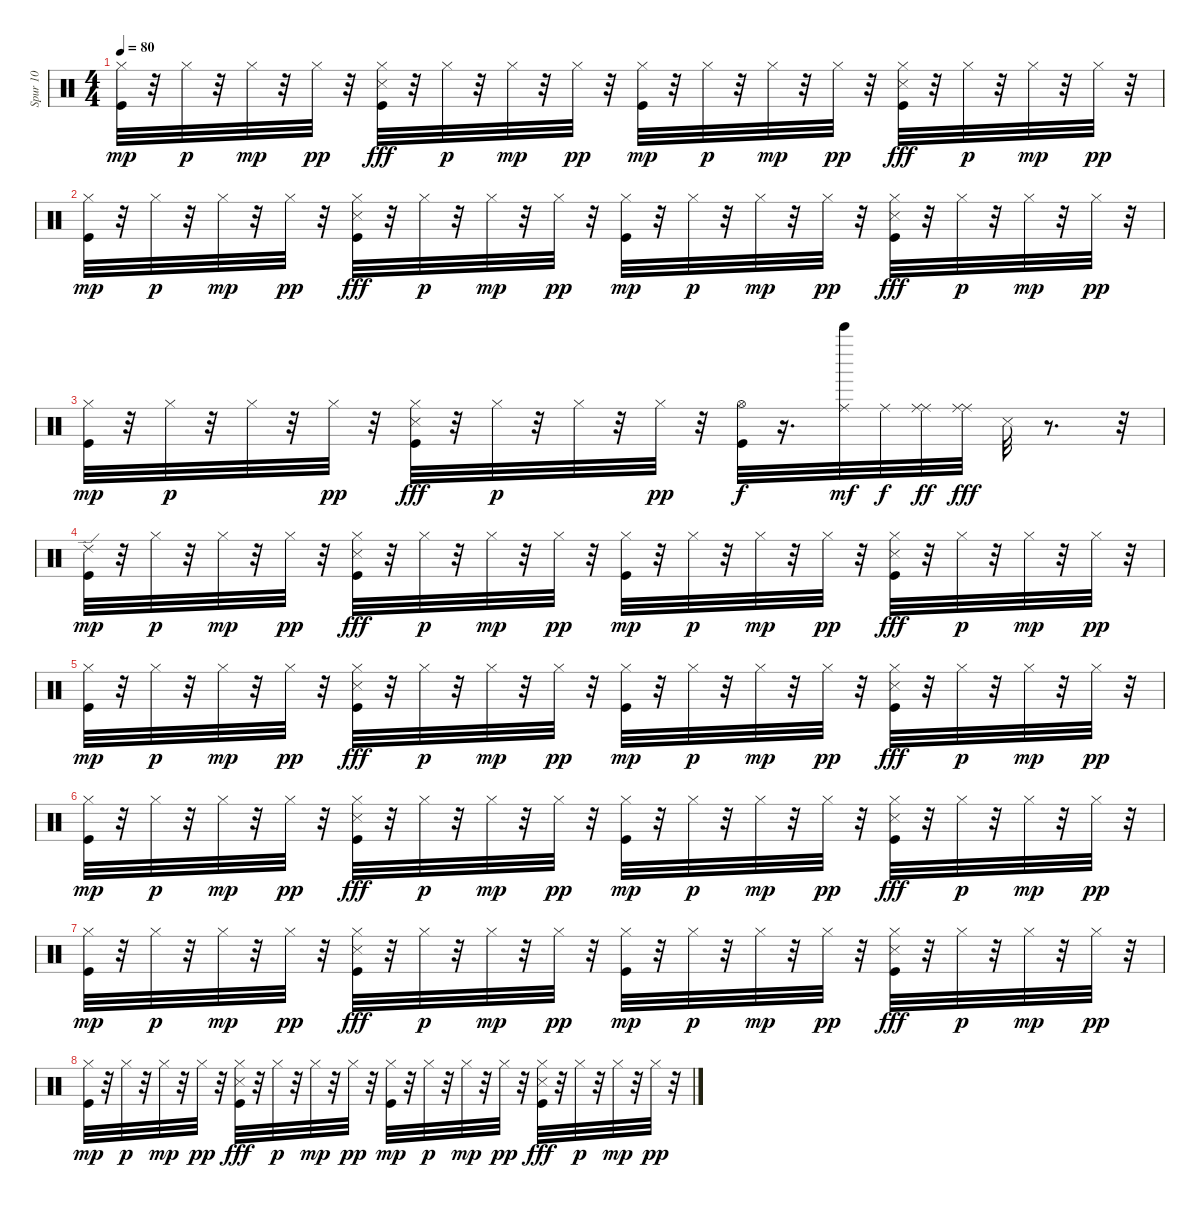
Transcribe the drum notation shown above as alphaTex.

\track ("Spur 10" "Spur 10") {instrument percussion}
\staff {score}
\articulation defaults
\ts (4 4)
\tempo 80
\clef neutral
\ks c
("Hi-Hat (closed)" "Kick (hit)").32{dy mp} r.32 "Hi-Hat (closed)".32{dy p} r.32 "Hi-Hat (closed)".32{dy mp} r.32 "Hi-Hat (closed)".32{dy pp} r.32 ("Hi-Hat (closed)" "Snare (side stick) 3" "Kick (hit)").32{dy fff} r.32 "Hi-Hat (closed)".32{dy p} r.32 "Hi-Hat (closed)".32{dy mp} r.32 "Hi-Hat (closed)".32{dy pp} r.32 ("Hi-Hat (closed)" "Kick (hit)").32{dy mp} r.32 "Hi-Hat (closed)".32{dy p} r.32 "Hi-Hat (closed)".32{dy mp} r.32 "Hi-Hat (closed)".32{dy pp} r.32 ("Hi-Hat (closed)" "Snare (side stick) 3" "Kick (hit)").32{dy fff} r.32 "Hi-Hat (closed)".32{dy p} r.32 "Hi-Hat (closed)".32{dy mp} r.32 "Hi-Hat (closed)".32{dy pp} r.32 |
("Hi-Hat (closed)" "Kick (hit)").32{dy mp} r.32 "Hi-Hat (closed)".32{dy p} r.32 "Hi-Hat (closed)".32{dy mp} r.32 "Hi-Hat (closed)".32{dy pp} r.32 ("Hi-Hat (closed)" "Snare (side stick) 3" "Kick (hit)").32{dy fff} r.32 "Hi-Hat (closed)".32{dy p} r.32 "Hi-Hat (closed)".32{dy mp} r.32 "Hi-Hat (closed)".32{dy pp} r.32 ("Hi-Hat (closed)" "Kick (hit)").32{dy mp} r.32 "Hi-Hat (closed)".32{dy p} r.32 "Hi-Hat (closed)".32{dy mp} r.32 "Hi-Hat (closed)".32{dy pp} r.32 ("Hi-Hat (closed)" "Snare (side stick) 3" "Kick (hit)").32{dy fff} r.32 "Hi-Hat (closed)".32{dy p} r.32 "Hi-Hat (closed)".32{dy mp} r.32 "Hi-Hat (closed)".32{dy pp} r.32 |
("Hi-Hat (closed)" "Kick (hit)").32{dy mp} r.32 "Hi-Hat (closed)".32{dy p} r.32 "Hi-Hat (closed)".32 r.32 "Hi-Hat (closed)".32{dy pp} r.32 ("Hi-Hat (closed)" "Snare (side stick) 3" "Kick (hit)").32{dy fff} r.32 "Hi-Hat (closed)".32{dy p} r.32 "Hi-Hat (closed)".32 r.32 "Hi-Hat (closed)".32{dy pp} r.32 ("Hi-Hat (open)" "Kick (hit)").32{dy f} r.16{d} ("Bell Tree (hit)" "Ride (middle)").32{dy mf} "Ride (middle)".32{dy f} ("Ride (middle)" "Ride (middle)").32{dy ff} ("Ride (middle)" "Ride (middle)").32{dy fff} "Snare (side stick) 3".32 r.8{d} r.32 |
("Ride (edge) 2" "Kick (hit)").32{dy mp} r.32 "Hi-Hat (closed)".32{dy p} r.32 "Hi-Hat (closed)".32{dy mp} r.32 "Hi-Hat (closed)".32{dy pp} r.32 ("Hi-Hat (closed)" "Snare (side stick) 3" "Kick (hit)").32{dy fff} r.32 "Hi-Hat (closed)".32{dy p} r.32 "Hi-Hat (closed)".32{dy mp} r.32 "Hi-Hat (closed)".32{dy pp} r.32 ("Hi-Hat (closed)" "Kick (hit)").32{dy mp} r.32 "Hi-Hat (closed)".32{dy p} r.32 "Hi-Hat (closed)".32{dy mp} r.32 "Hi-Hat (closed)".32{dy pp} r.32 ("Hi-Hat (closed)" "Snare (side stick) 3" "Kick (hit)").32{dy fff} r.32 "Hi-Hat (closed)".32{dy p} r.32 "Hi-Hat (closed)".32{dy mp} r.32 "Hi-Hat (closed)".32{dy pp} r.32 |
("Hi-Hat (closed)" "Kick (hit)").32{dy mp} r.32 "Hi-Hat (closed)".32{dy p} r.32 "Hi-Hat (closed)".32{dy mp} r.32 "Hi-Hat (closed)".32{dy pp} r.32 ("Hi-Hat (closed)" "Snare (side stick) 3" "Kick (hit)").32{dy fff} r.32 "Hi-Hat (closed)".32{dy p} r.32 "Hi-Hat (closed)".32{dy mp} r.32 "Hi-Hat (closed)".32{dy pp} r.32 ("Hi-Hat (closed)" "Kick (hit)").32{dy mp} r.32 "Hi-Hat (closed)".32{dy p} r.32 "Hi-Hat (closed)".32{dy mp} r.32 "Hi-Hat (closed)".32{dy pp} r.32 ("Hi-Hat (closed)" "Snare (side stick) 3" "Kick (hit)").32{dy fff} r.32 "Hi-Hat (closed)".32{dy p} r.32 "Hi-Hat (closed)".32{dy mp} r.32 "Hi-Hat (closed)".32{dy pp} r.32 |
("Hi-Hat (closed)" "Kick (hit)").32{dy mp} r.32 "Hi-Hat (closed)".32{dy p} r.32 "Hi-Hat (closed)".32{dy mp} r.32 "Hi-Hat (closed)".32{dy pp} r.32 ("Hi-Hat (closed)" "Snare (side stick) 3" "Kick (hit)").32{dy fff} r.32 "Hi-Hat (closed)".32{dy p} r.32 "Hi-Hat (closed)".32{dy mp} r.32 "Hi-Hat (closed)".32{dy pp} r.32 ("Hi-Hat (closed)" "Kick (hit)").32{dy mp} r.32 "Hi-Hat (closed)".32{dy p} r.32 "Hi-Hat (closed)".32{dy mp} r.32 "Hi-Hat (closed)".32{dy pp} r.32 ("Hi-Hat (closed)" "Snare (side stick) 3" "Kick (hit)").32{dy fff} r.32 "Hi-Hat (closed)".32{dy p} r.32 "Hi-Hat (closed)".32{dy mp} r.32 "Hi-Hat (closed)".32{dy pp} r.32 |
("Hi-Hat (closed)" "Kick (hit)").32{dy mp} r.32 "Hi-Hat (closed)".32{dy p} r.32 "Hi-Hat (closed)".32{dy mp} r.32 "Hi-Hat (closed)".32{dy pp} r.32 ("Hi-Hat (closed)" "Snare (side stick) 3" "Kick (hit)").32{dy fff} r.32 "Hi-Hat (closed)".32{dy p} r.32 "Hi-Hat (closed)".32{dy mp} r.32 "Hi-Hat (closed)".32{dy pp} r.32 ("Hi-Hat (closed)" "Kick (hit)").32{dy mp} r.32 "Hi-Hat (closed)".32{dy p} r.32 "Hi-Hat (closed)".32{dy mp} r.32 "Hi-Hat (closed)".32{dy pp} r.32 ("Hi-Hat (closed)" "Snare (side stick) 3" "Kick (hit)").32{dy fff} r.32 "Hi-Hat (closed)".32{dy p} r.32 "Hi-Hat (closed)".32{dy mp} r.32 "Hi-Hat (closed)".32{dy pp} r.32 |
("Hi-Hat (closed)" "Kick (hit)").32{dy mp} r.32 "Hi-Hat (closed)".32{dy p} r.32 "Hi-Hat (closed)".32{dy mp} r.32 "Hi-Hat (closed)".32{dy pp} r.32 ("Hi-Hat (closed)" "Snare (side stick) 3" "Kick (hit)").32{dy fff} r.32 "Hi-Hat (closed)".32{dy p} r.32 "Hi-Hat (closed)".32{dy mp} r.32 "Hi-Hat (closed)".32{dy pp} r.32 ("Hi-Hat (closed)" "Kick (hit)").32{dy mp} r.32 "Hi-Hat (closed)".32{dy p} r.32 "Hi-Hat (closed)".32{dy mp} r.32 "Hi-Hat (closed)".32{dy pp} r.32 ("Hi-Hat (closed)" "Snare (side stick) 3" "Kick (hit)").32{dy fff} r.32 "Hi-Hat (closed)".32{dy p} r.32 "Hi-Hat (closed)".32{dy mp} r.32 "Hi-Hat (closed)".32{dy pp} r.32
